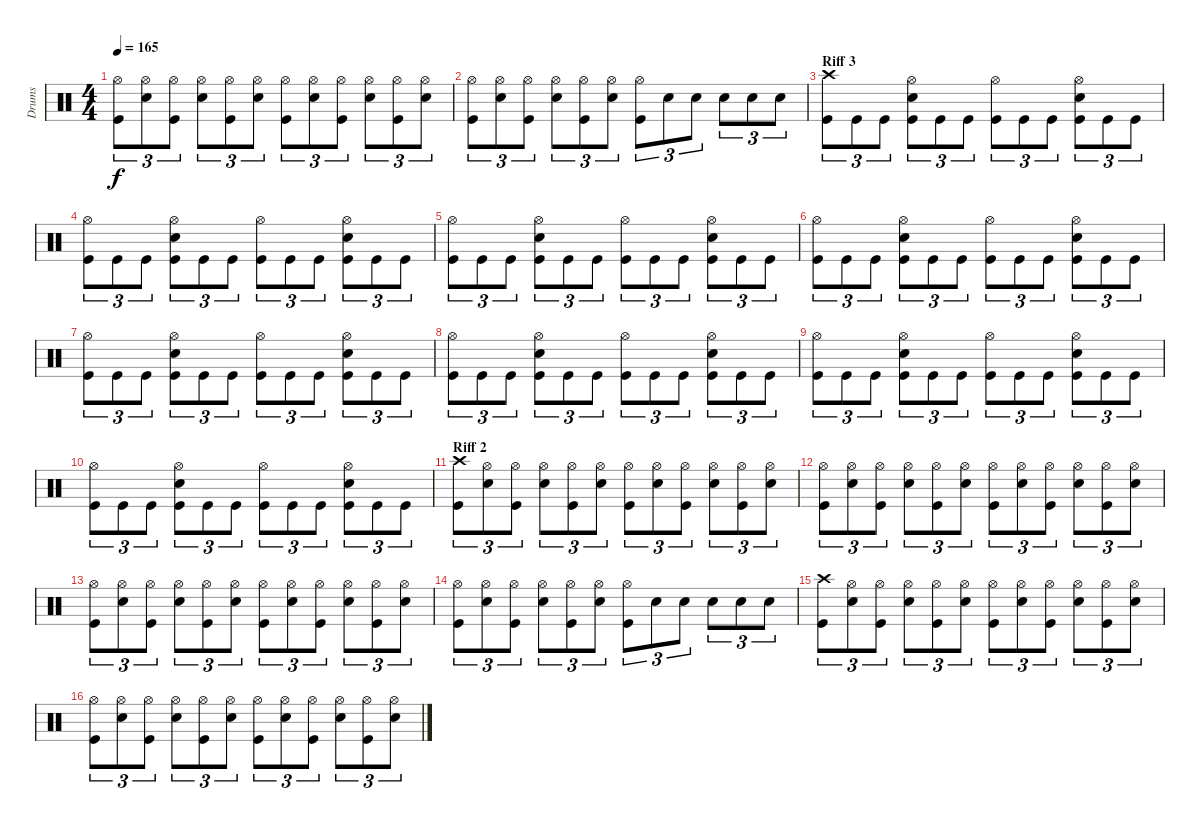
\track ("Drums" "Drums") {instrument percussion}
\staff {score}
\articulation defaults
\ts (4 4)
\tempo 165
\clef neutral
\ks c
("Hi-Hat (open)" "Kick (hit)").8{tu (3 2) dy f} ("Hi-Hat (open)" "Electric Snare (hit)").8{tu (3 2)} ("Hi-Hat (open)" "Kick (hit)").8{tu (3 2)} ("Hi-Hat (open)" "Electric Snare (hit)").8{tu (3 2)} ("Hi-Hat (open)" "Kick (hit)").8{tu (3 2)} ("Hi-Hat (open)" "Electric Snare (hit)").8{tu (3 2)} ("Hi-Hat (open)" "Kick (hit)").8{tu (3 2)} ("Hi-Hat (open)" "Electric Snare (hit)").8{tu (3 2)} ("Hi-Hat (open)" "Kick (hit)").8{tu (3 2)} ("Hi-Hat (open)" "Electric Snare (hit)").8{tu (3 2)} ("Hi-Hat (open)" "Kick (hit)").8{tu (3 2)} ("Hi-Hat (open)" "Electric Snare (hit)").8{tu (3 2)} |
("Hi-Hat (open)" "Kick (hit)").8{tu (3 2)} ("Hi-Hat (open)" "Electric Snare (hit)").8{tu (3 2)} ("Hi-Hat (open)" "Kick (hit)").8{tu (3 2)} ("Hi-Hat (open)" "Electric Snare (hit)").8{tu (3 2)} ("Hi-Hat (open)" "Kick (hit)").8{tu (3 2)} ("Hi-Hat (open)" "Electric Snare (hit)").8{tu (3 2)} ("Hi-Hat (open)" "Kick (hit)").8{tu (3 2)} "Electric Snare (hit)".8{tu (3 2)} "Electric Snare (hit)".8{tu (3 2)} "Electric Snare (hit)".8{tu (3 2)} "Electric Snare (hit)".8{tu (3 2)} "Electric Snare (hit)".8{tu (3 2)} |
\section ("" "Riff 3")
("Crash high (hit)" "Kick (hit)").8{tu (3 2)} "Kick (hit)".8{tu (3 2)} "Kick (hit)".8{tu (3 2)} ("Hi-Hat (open)" "Electric Snare (hit)" "Kick (hit)").8{tu (3 2)} "Kick (hit)".8{tu (3 2)} "Kick (hit)".8{tu (3 2)} ("Hi-Hat (open)" "Kick (hit)").8{tu (3 2)} "Kick (hit)".8{tu (3 2)} "Kick (hit)".8{tu (3 2)} ("Hi-Hat (open)" "Electric Snare (hit)" "Kick (hit)").8{tu (3 2)} "Kick (hit)".8{tu (3 2)} "Kick (hit)".8{tu (3 2)} |
("Hi-Hat (open)" "Kick (hit)").8{tu (3 2)} "Kick (hit)".8{tu (3 2)} "Kick (hit)".8{tu (3 2)} ("Hi-Hat (open)" "Electric Snare (hit)" "Kick (hit)").8{tu (3 2)} "Kick (hit)".8{tu (3 2)} "Kick (hit)".8{tu (3 2)} ("Hi-Hat (open)" "Kick (hit)").8{tu (3 2)} "Kick (hit)".8{tu (3 2)} "Kick (hit)".8{tu (3 2)} ("Hi-Hat (open)" "Electric Snare (hit)" "Kick (hit)").8{tu (3 2)} "Kick (hit)".8{tu (3 2)} "Kick (hit)".8{tu (3 2)} |
("Hi-Hat (open)" "Kick (hit)").8{tu (3 2)} "Kick (hit)".8{tu (3 2)} "Kick (hit)".8{tu (3 2)} ("Hi-Hat (open)" "Electric Snare (hit)" "Kick (hit)").8{tu (3 2)} "Kick (hit)".8{tu (3 2)} "Kick (hit)".8{tu (3 2)} ("Hi-Hat (open)" "Kick (hit)").8{tu (3 2)} "Kick (hit)".8{tu (3 2)} "Kick (hit)".8{tu (3 2)} ("Hi-Hat (open)" "Electric Snare (hit)" "Kick (hit)").8{tu (3 2)} "Kick (hit)".8{tu (3 2)} "Kick (hit)".8{tu (3 2)} |
("Hi-Hat (open)" "Kick (hit)").8{tu (3 2)} "Kick (hit)".8{tu (3 2)} "Kick (hit)".8{tu (3 2)} ("Hi-Hat (open)" "Electric Snare (hit)" "Kick (hit)").8{tu (3 2)} "Kick (hit)".8{tu (3 2)} "Kick (hit)".8{tu (3 2)} ("Hi-Hat (open)" "Kick (hit)").8{tu (3 2)} "Kick (hit)".8{tu (3 2)} "Kick (hit)".8{tu (3 2)} ("Hi-Hat (open)" "Electric Snare (hit)" "Kick (hit)").8{tu (3 2)} "Kick (hit)".8{tu (3 2)} "Kick (hit)".8{tu (3 2)} |
("Hi-Hat (open)" "Kick (hit)").8{tu (3 2)} "Kick (hit)".8{tu (3 2)} "Kick (hit)".8{tu (3 2)} ("Hi-Hat (open)" "Electric Snare (hit)" "Kick (hit)").8{tu (3 2)} "Kick (hit)".8{tu (3 2)} "Kick (hit)".8{tu (3 2)} ("Hi-Hat (open)" "Kick (hit)").8{tu (3 2)} "Kick (hit)".8{tu (3 2)} "Kick (hit)".8{tu (3 2)} ("Hi-Hat (open)" "Electric Snare (hit)" "Kick (hit)").8{tu (3 2)} "Kick (hit)".8{tu (3 2)} "Kick (hit)".8{tu (3 2)} |
("Hi-Hat (open)" "Kick (hit)").8{tu (3 2)} "Kick (hit)".8{tu (3 2)} "Kick (hit)".8{tu (3 2)} ("Hi-Hat (open)" "Electric Snare (hit)" "Kick (hit)").8{tu (3 2)} "Kick (hit)".8{tu (3 2)} "Kick (hit)".8{tu (3 2)} ("Hi-Hat (open)" "Kick (hit)").8{tu (3 2)} "Kick (hit)".8{tu (3 2)} "Kick (hit)".8{tu (3 2)} ("Hi-Hat (open)" "Electric Snare (hit)" "Kick (hit)").8{tu (3 2)} "Kick (hit)".8{tu (3 2)} "Kick (hit)".8{tu (3 2)} |
("Hi-Hat (open)" "Kick (hit)").8{tu (3 2)} "Kick (hit)".8{tu (3 2)} "Kick (hit)".8{tu (3 2)} ("Hi-Hat (open)" "Electric Snare (hit)" "Kick (hit)").8{tu (3 2)} "Kick (hit)".8{tu (3 2)} "Kick (hit)".8{tu (3 2)} ("Hi-Hat (open)" "Kick (hit)").8{tu (3 2)} "Kick (hit)".8{tu (3 2)} "Kick (hit)".8{tu (3 2)} ("Hi-Hat (open)" "Electric Snare (hit)" "Kick (hit)").8{tu (3 2)} "Kick (hit)".8{tu (3 2)} "Kick (hit)".8{tu (3 2)} |
("Hi-Hat (open)" "Kick (hit)").8{tu (3 2)} "Kick (hit)".8{tu (3 2)} "Kick (hit)".8{tu (3 2)} ("Hi-Hat (open)" "Electric Snare (hit)" "Kick (hit)").8{tu (3 2)} "Kick (hit)".8{tu (3 2)} "Kick (hit)".8{tu (3 2)} ("Hi-Hat (open)" "Kick (hit)").8{tu (3 2)} "Kick (hit)".8{tu (3 2)} "Kick (hit)".8{tu (3 2)} ("Hi-Hat (open)" "Electric Snare (hit)" "Kick (hit)").8{tu (3 2)} "Kick (hit)".8{tu (3 2)} "Kick (hit)".8{tu (3 2)} |
\section ("" "Riff 2")
("Crash high (hit)" "Kick (hit)").8{tu (3 2)} ("Hi-Hat (open)" "Electric Snare (hit)").8{tu (3 2)} ("Hi-Hat (open)" "Kick (hit)").8{tu (3 2)} ("Hi-Hat (open)" "Electric Snare (hit)").8{tu (3 2)} ("Hi-Hat (open)" "Kick (hit)").8{tu (3 2)} ("Hi-Hat (open)" "Electric Snare (hit)").8{tu (3 2)} ("Hi-Hat (open)" "Kick (hit)").8{tu (3 2)} ("Hi-Hat (open)" "Electric Snare (hit)").8{tu (3 2)} ("Hi-Hat (open)" "Kick (hit)").8{tu (3 2)} ("Hi-Hat (open)" "Electric Snare (hit)").8{tu (3 2)} ("Hi-Hat (open)" "Kick (hit)").8{tu (3 2)} ("Hi-Hat (open)" "Electric Snare (hit)").8{tu (3 2)} |
("Hi-Hat (open)" "Kick (hit)").8{tu (3 2)} ("Hi-Hat (open)" "Electric Snare (hit)").8{tu (3 2)} ("Hi-Hat (open)" "Kick (hit)").8{tu (3 2)} ("Hi-Hat (open)" "Electric Snare (hit)").8{tu (3 2)} ("Hi-Hat (open)" "Kick (hit)").8{tu (3 2)} ("Hi-Hat (open)" "Electric Snare (hit)").8{tu (3 2)} ("Hi-Hat (open)" "Kick (hit)").8{tu (3 2)} ("Hi-Hat (open)" "Electric Snare (hit)").8{tu (3 2)} ("Hi-Hat (open)" "Kick (hit)").8{tu (3 2)} ("Hi-Hat (open)" "Electric Snare (hit)").8{tu (3 2)} ("Hi-Hat (open)" "Kick (hit)").8{tu (3 2)} ("Hi-Hat (open)" "Electric Snare (hit)").8{tu (3 2)} |
("Hi-Hat (open)" "Kick (hit)").8{tu (3 2)} ("Hi-Hat (open)" "Electric Snare (hit)").8{tu (3 2)} ("Hi-Hat (open)" "Kick (hit)").8{tu (3 2)} ("Hi-Hat (open)" "Electric Snare (hit)").8{tu (3 2)} ("Hi-Hat (open)" "Kick (hit)").8{tu (3 2)} ("Hi-Hat (open)" "Electric Snare (hit)").8{tu (3 2)} ("Hi-Hat (open)" "Kick (hit)").8{tu (3 2)} ("Hi-Hat (open)" "Electric Snare (hit)").8{tu (3 2)} ("Hi-Hat (open)" "Kick (hit)").8{tu (3 2)} ("Hi-Hat (open)" "Electric Snare (hit)").8{tu (3 2)} ("Hi-Hat (open)" "Kick (hit)").8{tu (3 2)} ("Hi-Hat (open)" "Electric Snare (hit)").8{tu (3 2)} |
("Hi-Hat (open)" "Kick (hit)").8{tu (3 2)} ("Hi-Hat (open)" "Electric Snare (hit)").8{tu (3 2)} ("Hi-Hat (open)" "Kick (hit)").8{tu (3 2)} ("Hi-Hat (open)" "Electric Snare (hit)").8{tu (3 2)} ("Hi-Hat (open)" "Kick (hit)").8{tu (3 2)} ("Hi-Hat (open)" "Electric Snare (hit)").8{tu (3 2)} ("Hi-Hat (open)" "Kick (hit)").8{tu (3 2)} "Electric Snare (hit)".8{tu (3 2)} "Electric Snare (hit)".8{tu (3 2)} "Electric Snare (hit)".8{tu (3 2)} "Electric Snare (hit)".8{tu (3 2)} "Electric Snare (hit)".8{tu (3 2)} |
("Crash high (hit)" "Kick (hit)").8{tu (3 2)} ("Hi-Hat (open)" "Electric Snare (hit)").8{tu (3 2)} ("Hi-Hat (open)" "Kick (hit)").8{tu (3 2)} ("Hi-Hat (open)" "Electric Snare (hit)").8{tu (3 2)} ("Hi-Hat (open)" "Kick (hit)").8{tu (3 2)} ("Hi-Hat (open)" "Electric Snare (hit)").8{tu (3 2)} ("Hi-Hat (open)" "Kick (hit)").8{tu (3 2)} ("Hi-Hat (open)" "Electric Snare (hit)").8{tu (3 2)} ("Hi-Hat (open)" "Kick (hit)").8{tu (3 2)} ("Hi-Hat (open)" "Electric Snare (hit)").8{tu (3 2)} ("Hi-Hat (open)" "Kick (hit)").8{tu (3 2)} ("Hi-Hat (open)" "Electric Snare (hit)").8{tu (3 2)} |
("Hi-Hat (open)" "Kick (hit)").8{tu (3 2)} ("Hi-Hat (open)" "Electric Snare (hit)").8{tu (3 2)} ("Hi-Hat (open)" "Kick (hit)").8{tu (3 2)} ("Hi-Hat (open)" "Electric Snare (hit)").8{tu (3 2)} ("Hi-Hat (open)" "Kick (hit)").8{tu (3 2)} ("Hi-Hat (open)" "Electric Snare (hit)").8{tu (3 2)} ("Hi-Hat (open)" "Kick (hit)").8{tu (3 2)} ("Hi-Hat (open)" "Electric Snare (hit)").8{tu (3 2)} ("Hi-Hat (open)" "Kick (hit)").8{tu (3 2)} ("Hi-Hat (open)" "Electric Snare (hit)").8{tu (3 2)} ("Hi-Hat (open)" "Kick (hit)").8{tu (3 2)} ("Hi-Hat (open)" "Electric Snare (hit)").8{tu (3 2)}
